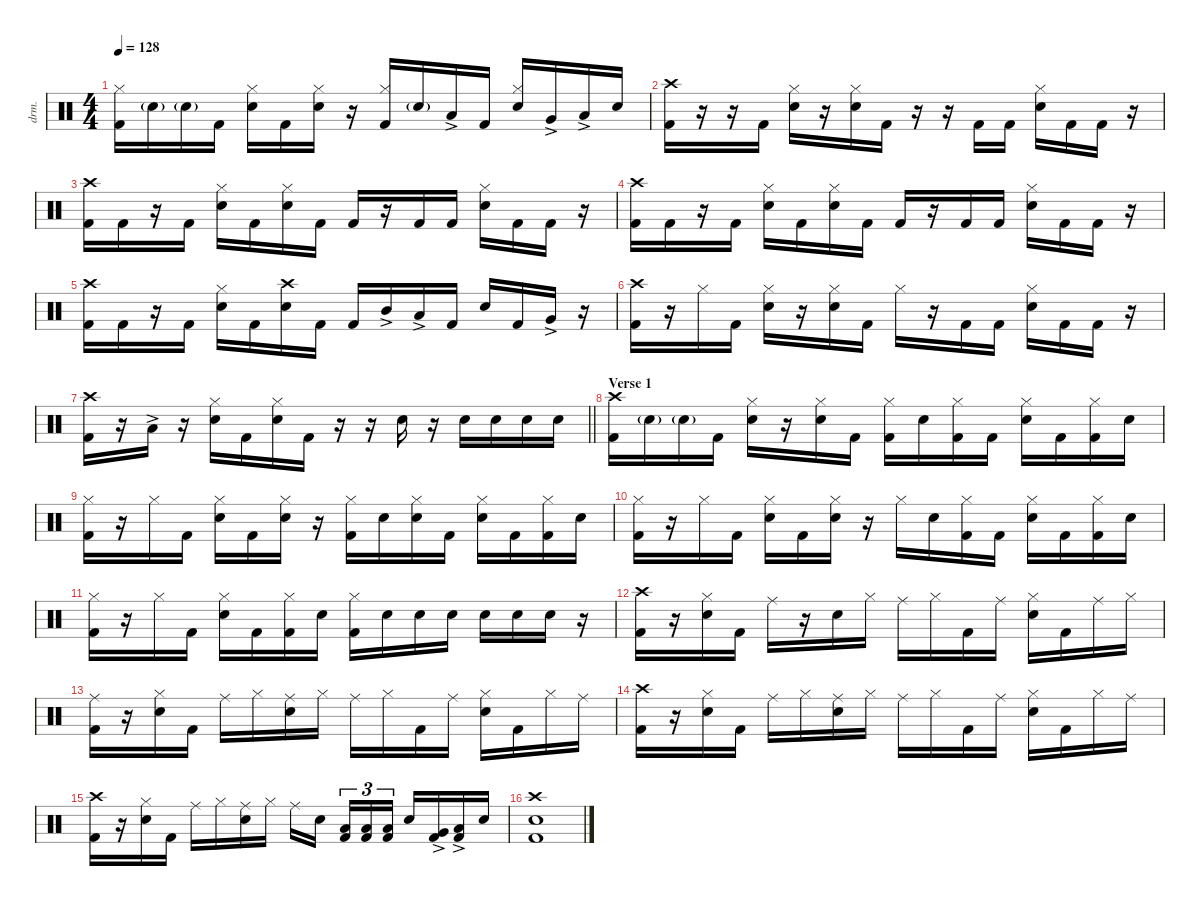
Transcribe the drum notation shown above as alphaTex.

\defaultSystemsLayout 4
\hideDynamics
\bracketExtendMode nobrackets
\otherSystemsTrackNameOrientation horizontal
\track ("Drums" "drm.") {instrument percussion}
\staff {score}
\articulation defaults
\ts (4 4)
\tempo 128
\clef neutral
\ks c
("Hi-Hat (closed)" "Kick (hit) 2").16{dy f beam Down} "Snare (hit) 2"{g}.16{beam Down} "Snare (hit) 2"{g}.16{beam Down} "Kick (hit) 2".16{beam Down} ("Hi-Hat (closed)" "Snare (hit) 2").16{beam Down} "Kick (hit) 2".16{beam Down} ("Hi-Hat (closed)" "Snare (hit) 2").16{beam Down} r.16{beam Down} ("Hi-Hat (closed)" "Kick (hit) 2").16{beam Up} "Snare (hit) 2"{g}.16{beam Up} "Low Tom (hit)"{ac}.16{dy mf beam Up} "Kick (hit) 2".16{dy f beam Up} ("Hi-Hat (closed)" "Snare (hit) 2").16{beam Up} "Very Low Tom (hit)"{ac}.16{dy mf beam Up} "Low Tom (hit)"{ac}.16{beam Up} "Snare (hit) 2".16{dy f beam Up} |
("Crash high (hit)" "Kick (hit) 2").16{beam Down} r.16{beam Down} r.16{beam Down} "Kick (hit) 2".16{beam Down} ("Hi-Hat (closed)" "Snare (hit) 2").16{beam Down} r.16{beam Down} ("Hi-Hat (closed)" "Snare (hit) 2").16{beam Down} "Kick (hit) 2".16{beam Down} r.16{beam Down} r.16{beam Down} "Kick (hit) 2".16{beam Up} "Kick (hit) 2".16{beam Up} ("Hi-Hat (closed)" "Snare (hit) 2").16{beam Down} "Kick (hit) 2".16{beam Down} "Kick (hit) 2".16{beam Down} r.16{beam Down} |
("Crash high (hit)" "Kick (hit) 2").16{beam Down} "Kick (hit) 2".16{beam Down} r.16{beam Down} "Kick (hit) 2".16{beam Down} ("Hi-Hat (closed)" "Snare (hit) 2").16{beam Down} "Kick (hit) 2".16{beam Down} ("Hi-Hat (closed)" "Snare (hit) 2").16{beam Down} "Kick (hit) 2".16{beam Down} "Kick (hit) 2".16{beam Up} r.16{beam Up} "Kick (hit) 2".16{beam Up} "Kick (hit) 2".16{beam Up} ("Hi-Hat (closed)" "Snare (hit) 2").16{beam Down} "Kick (hit) 2".16{beam Down} "Kick (hit) 2".16{beam Down} r.16{beam Down} |
("Crash high (hit)" "Kick (hit) 2").16{beam Down} "Kick (hit) 2".16{beam Down} r.16{beam Down} "Kick (hit) 2".16{beam Down} ("Hi-Hat (closed)" "Snare (hit) 2").16{beam Down} "Kick (hit) 2".16{beam Down} ("Hi-Hat (closed)" "Snare (hit) 2").16{beam Down} "Kick (hit) 2".16{beam Down} "Kick (hit) 2".16{beam Up} r.16{beam Up} "Kick (hit) 2".16{beam Up} "Kick (hit) 2".16{beam Up} ("Hi-Hat (closed)" "Snare (hit) 2").16{beam Down} "Kick (hit) 2".16{beam Down} "Kick (hit) 2".16{beam Down} r.16{beam Down} |
("Crash high (hit)" "Kick (hit) 2").16{beam Down} "Kick (hit) 2".16{beam Down} r.16{beam Down} "Kick (hit) 2".16{beam Down} ("Hi-Hat (closed)" "Snare (hit) 2").16{beam Down} "Kick (hit) 2".16{beam Down} ("Crash high (hit)" "Snare (hit) 2").16{beam Down} "Kick (hit) 2".16{beam Down} "Kick (hit) 2".16{beam Up} "Mid Tom (hit)"{ac}.16{dy mf beam Up} "Low Tom (hit)"{ac}.16{beam Up} "Kick (hit) 2".16{dy f beam Up} "Snare (hit) 2".16{beam Up} "Kick (hit) 2".16{beam Up} "Very Low Tom (hit)"{ac}.16{dy mf beam Up} r.16{beam Up} |
("Crash high (hit)" "Kick (hit) 2").16{dy f beam Down} r.16{beam Down} "Hi-Hat (closed)".16{beam Down} "Kick (hit) 2".16{beam Down} ("Hi-Hat (closed)" "Snare (hit) 2").16{beam Down} r.16{beam Down} ("Hi-Hat (closed)" "Snare (hit) 2").16{beam Down} "Kick (hit) 2".16{beam Down} "Hi-Hat (closed)".16{beam Down} r.16{beam Down} "Kick (hit) 2".16{beam Down} "Kick (hit) 2".16{beam Down} ("Hi-Hat (closed)" "Snare (hit) 2").16{beam Down} "Kick (hit) 2".16{beam Down} "Kick (hit) 2".16{beam Down} r.16{beam Down} |
\barLineRight lightlight
("Crash high (hit)" "Kick (hit) 2").16{beam Down} r.16{beam Down} "Low Tom (hit)"{ac}.16{dy mf beam Down} r.16{beam Down} ("Hi-Hat (closed)" "Snare (hit) 2").16{dy f beam Down} "Kick (hit) 2".16{beam Down} ("Hi-Hat (closed)" "Snare (hit) 2").16{beam Down} "Kick (hit) 2".16{beam Down} r.16{beam Down} r.16{beam Down} "Snare (hit) 2".16{beam Down} r.16{beam Down} "Snare (hit) 2".16{beam Down} "Snare (hit) 2".16{beam Down} "Snare (hit) 2".16{beam Down} "Snare (hit) 2".16{beam Down} |
\section ("" "Verse 1")
("Crash high (hit)" "Kick (hit) 2").16{beam Down} "Snare (hit) 2"{g}.16{beam Down} "Snare (hit) 2"{g}.16{beam Down} "Kick (hit) 2".16{beam Down} ("Hi-Hat (closed)" "Snare (hit) 2").16{beam Down} r.16{beam Down} ("Hi-Hat (closed)" "Snare (hit) 2").16{beam Down} "Kick (hit) 2".16{beam Down} ("Hi-Hat (closed)" "Kick (hit) 2").16{beam Down} "Snare (hit) 2".16{beam Down} ("Hi-Hat (closed)" "Kick (hit) 2").16{beam Down} "Kick (hit) 2".16{beam Down} ("Hi-Hat (closed)" "Snare (hit) 2").16{beam Down} "Kick (hit) 2".16{beam Down} ("Hi-Hat (closed)" "Kick (hit) 2").16{beam Down} "Snare (hit) 2".16{beam Down} |
("Hi-Hat (closed)" "Kick (hit) 2").16{beam Down} r.16{beam Down} "Hi-Hat (closed)".16{beam Down} "Kick (hit) 2".16{beam Down} ("Hi-Hat (closed)" "Snare (hit) 2").16{beam Down} "Kick (hit) 2".16{beam Down} ("Hi-Hat (closed)" "Snare (hit) 2").16{beam Down} r.16{beam Down} ("Hi-Hat (closed)" "Kick (hit) 2").16{beam Down} "Snare (hit) 2".16{beam Down} ("Hi-Hat (closed)" "Snare (hit) 2").16{beam Down} "Kick (hit) 2".16{beam Down} ("Hi-Hat (closed)" "Snare (hit) 2").16{beam Down} "Kick (hit) 2".16{beam Down} ("Hi-Hat (closed)" "Kick (hit) 2").16{beam Down} "Snare (hit) 2".16{beam Down} |
("Hi-Hat (closed)" "Kick (hit) 2").16{beam Down} r.16{beam Down} "Hi-Hat (closed)".16{beam Down} "Kick (hit) 2".16{beam Down} ("Hi-Hat (closed)" "Snare (hit) 2").16{beam Down} "Kick (hit) 2".16{beam Down} ("Hi-Hat (closed)" "Snare (hit) 2").16{beam Down} r.16{beam Down} "Hi-Hat (closed)".16{beam Down} "Snare (hit) 2".16{beam Down} ("Hi-Hat (closed)" "Kick (hit) 2").16{beam Down} "Kick (hit) 2".16{beam Down} ("Hi-Hat (closed)" "Snare (hit) 2").16{beam Down} "Kick (hit) 2".16{beam Down} ("Hi-Hat (closed)" "Kick (hit) 2").16{beam Down} "Snare (hit) 2".16{beam Down} |
("Hi-Hat (closed)" "Kick (hit) 2").16{beam Down} r.16{beam Down} "Hi-Hat (closed)".16{beam Down} "Kick (hit) 2".16{beam Down} ("Hi-Hat (closed)" "Snare (hit) 2").16{beam Down} "Kick (hit) 2".16{beam Down} ("Hi-Hat (closed)" "Kick (hit) 2").16{beam Down} "Snare (hit) 2".16{beam Down} ("Hi-Hat (closed)" "Kick (hit) 2").16{beam Down} "Snare (hit) 2".16{beam Down} "Snare (hit) 2".16{beam Down} "Snare (hit) 2".16{beam Down} "Snare (hit) 2".16{beam Down} "Snare (hit) 2".16{beam Down} "Snare (hit) 2".16{beam Down} r.16{beam Down} |
("Crash high (hit)" "Kick (hit) 2").16{beam Down} r.16{beam Down} ("Hi-Hat (closed)" "Snare (hit) 2").16{beam Down} "Kick (hit) 2".16{beam Down} "Ride (middle)".16{beam Down} r.16{beam Down} "Snare (hit) 2".16{beam Down} "Hi-Hat (closed)".16{beam Down} "Ride (middle)".16{beam Down} "Hi-Hat (closed)".16{beam Down} "Kick (hit) 2".16{beam Down} "Ride (middle)".16{beam Down} ("Hi-Hat (closed)" "Snare (hit) 2").16{beam Down} "Kick (hit) 2".16{beam Down} "Ride (middle)".16{beam Down} "Hi-Hat (closed)".16{beam Down} |
("Ride (middle)" "Kick (hit) 2").16{beam Down} r.16{beam Down} ("Hi-Hat (closed)" "Snare (hit) 2").16{beam Down} "Kick (hit) 2".16{beam Down} "Ride (middle)".16{beam Down} "Hi-Hat (closed)".16{beam Down} ("Ride (middle)" "Snare (hit) 2").16{beam Down} "Hi-Hat (closed)".16{beam Down} "Ride (middle)".16{beam Down} "Hi-Hat (closed)".16{beam Down} "Kick (hit) 2".16{beam Down} "Ride (middle)".16{beam Down} ("Hi-Hat (closed)" "Snare (hit) 2").16{beam Down} "Kick (hit) 2".16{beam Down} "Hi-Hat (closed)".16{beam Down} "Ride (middle)".16{beam Down} |
("Crash high (hit)" "Kick (hit) 2").16{beam Down} r.16{beam Down} ("Hi-Hat (closed)" "Snare (hit) 2").16{beam Down} "Kick (hit) 2".16{beam Down} "Ride (middle)".16{beam Down} "Hi-Hat (closed)".16{beam Down} ("Ride (middle)" "Snare (hit) 2").16{beam Down} "Hi-Hat (closed)".16{beam Down} "Ride (middle)".16{beam Down} "Hi-Hat (closed)".16{beam Down} "Kick (hit) 2".16{beam Down} "Ride (middle)".16{beam Down} ("Hi-Hat (closed)" "Snare (hit) 2").16{beam Down} "Kick (hit) 2".16{beam Down} "Hi-Hat (closed)".16{beam Down} "Ride (middle)".16{beam Down} |
("Crash high (hit)" "Kick (hit) 2").16{beam Down} r.16{beam Down} ("Hi-Hat (closed)" "Snare (hit) 2").16{beam Down} "Kick (hit) 2".16{beam Down} "Ride (middle)".16{beam Down} "Hi-Hat (closed)".16{beam Down} ("Ride (middle)" "Snare (hit) 2").16{beam Down} "Hi-Hat (closed)".16{beam Down} "Ride (middle)".16{beam Down} "Snare (hit) 2".16{beam Down} ("Low Tom (hit)" "Kick (hit) 2").16{tu (3 2) beam Up} ("Low Tom (hit)" "Kick (hit) 2").16{tu (3 2) beam Up} ("Low Tom (hit)" "Kick (hit) 2").16{tu (3 2) beam Up} "Snare (hit) 2".16{beam Up} ("Very Low Tom (hit)"{ac} "Kick (hit) 2").16{beam Up} ("Low Floor Tom (hit)"{ac} "Kick (hit) 2").16{beam Up} "Snare (hit) 2".16{beam Up} |
("Crash high (hit)" "Snare (hit) 2" "Kick (hit) 2").1{beam Down}
